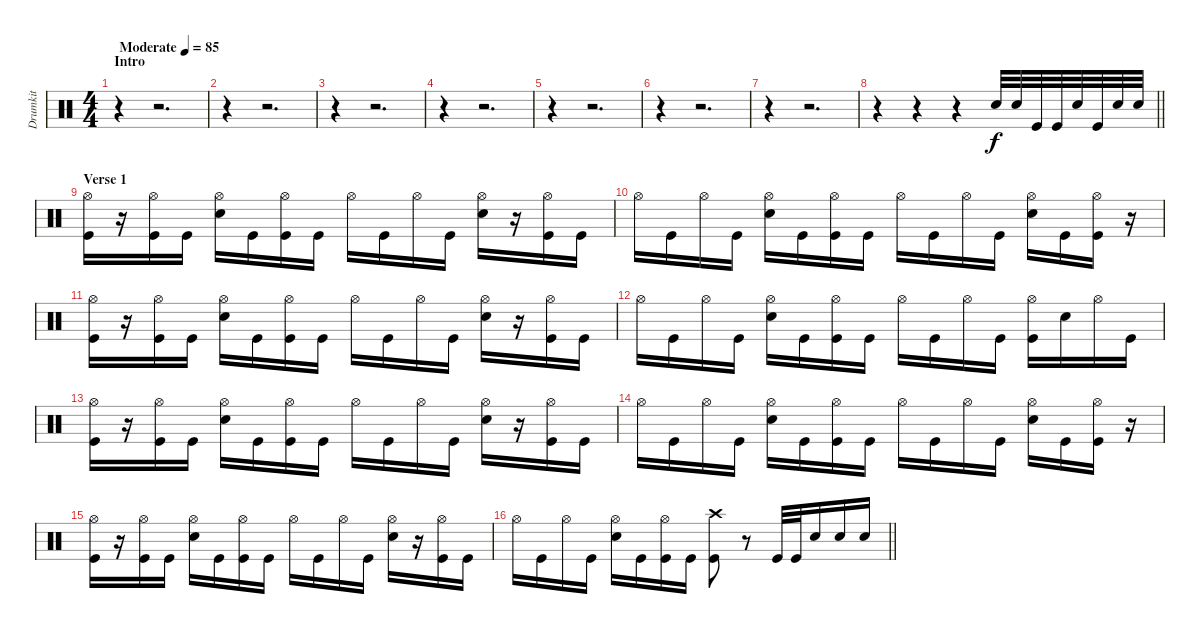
\track ("Drumkit" "Drumkit") {instrument percussion}
\staff {score}
\articulation defaults
\ts (4 4)
\section ("" "Intro")
\tempo (85 "Moderate")
\clef neutral
\ks c
r.4{dy f} r.2{d} |
r.4 r.2{d} |
r.4 r.2{d} |
r.4 r.2{d} |
r.4 r.2{d} |
r.4 r.2{d} |
r.4 r.2{d} |
\barLineRight lightlight
r.4 r.4 r.4 "Snare (hit) 2".32 "Snare (hit) 2".32 "Kick (hit)".32 "Kick (hit)".32 "Snare (hit) 2".32 "Kick (hit)".32 "Snare (hit) 2".32 "Snare (hit) 2".32 |
\section ("" "Verse 1")
("Hi-Hat (open)" "Kick (hit)").16 r.16 ("Hi-Hat (open)" "Kick (hit)").16 "Kick (hit)".16 ("Hi-Hat (open)" "Snare (hit) 2").16 "Kick (hit)".16 ("Hi-Hat (open)" "Kick (hit)").16 "Kick (hit)".16 "Hi-Hat (open)".16 "Kick (hit)".16 "Hi-Hat (open)".16 "Kick (hit)".16 ("Hi-Hat (open)" "Snare (hit) 2").16 r.16 ("Hi-Hat (open)" "Kick (hit)").16 "Kick (hit)".16 |
"Hi-Hat (open)".16 "Kick (hit)".16 "Hi-Hat (open)".16 "Kick (hit)".16 ("Hi-Hat (open)" "Snare (hit) 2").16 "Kick (hit)".16 ("Hi-Hat (open)" "Kick (hit)").16 "Kick (hit)".16 "Hi-Hat (open)".16 "Kick (hit)".16 "Hi-Hat (open)".16 "Kick (hit)".16 ("Hi-Hat (open)" "Snare (hit) 2").16 "Kick (hit)".16 ("Hi-Hat (open)" "Kick (hit)").16 r.16 |
("Hi-Hat (open)" "Kick (hit)").16 r.16 ("Hi-Hat (open)" "Kick (hit)").16 "Kick (hit)".16 ("Hi-Hat (open)" "Snare (hit) 2").16 "Kick (hit)".16 ("Hi-Hat (open)" "Kick (hit)").16 "Kick (hit)".16 "Hi-Hat (open)".16 "Kick (hit)".16 "Hi-Hat (open)".16 "Kick (hit)".16 ("Hi-Hat (open)" "Snare (hit) 2").16 r.16 ("Hi-Hat (open)" "Kick (hit)").16 "Kick (hit)".16 |
"Hi-Hat (open)".16 "Kick (hit)".16 "Hi-Hat (open)".16 "Kick (hit)".16 ("Hi-Hat (open)" "Snare (hit) 2").16 "Kick (hit)".16 ("Hi-Hat (open)" "Kick (hit)").16 "Kick (hit)".16 "Hi-Hat (open)".16 "Kick (hit)".16 "Hi-Hat (open)".16 "Kick (hit)".16 ("Hi-Hat (open)" "Kick (hit)").16 "Snare (hit) 2".16 "Hi-Hat (open)".16 "Kick (hit)".16 |
("Hi-Hat (open)" "Kick (hit)").16 r.16 ("Hi-Hat (open)" "Kick (hit)").16 "Kick (hit)".16 ("Hi-Hat (open)" "Snare (hit) 2").16 "Kick (hit)".16 ("Hi-Hat (open)" "Kick (hit)").16 "Kick (hit)".16 "Hi-Hat (open)".16 "Kick (hit)".16 "Hi-Hat (open)".16 "Kick (hit)".16 ("Hi-Hat (open)" "Snare (hit) 2").16 r.16 ("Hi-Hat (open)" "Kick (hit)").16 "Kick (hit)".16 |
"Hi-Hat (open)".16 "Kick (hit)".16 "Hi-Hat (open)".16 "Kick (hit)".16 ("Hi-Hat (open)" "Snare (hit) 2").16 "Kick (hit)".16 ("Hi-Hat (open)" "Kick (hit)").16 "Kick (hit)".16 "Hi-Hat (open)".16 "Kick (hit)".16 "Hi-Hat (open)".16 "Kick (hit)".16 ("Hi-Hat (open)" "Snare (hit) 2").16 "Kick (hit)".16 ("Hi-Hat (open)" "Kick (hit)").16 r.16 |
("Hi-Hat (open)" "Kick (hit)").16 r.16 ("Hi-Hat (open)" "Kick (hit)").16 "Kick (hit)".16 ("Hi-Hat (open)" "Snare (hit) 2").16 "Kick (hit)".16 ("Hi-Hat (open)" "Kick (hit)").16 "Kick (hit)".16 "Hi-Hat (open)".16 "Kick (hit)".16 "Hi-Hat (open)".16 "Kick (hit)".16 ("Hi-Hat (open)" "Snare (hit) 2").16 r.16 ("Hi-Hat (open)" "Kick (hit)").16 "Kick (hit)".16 |
\barLineRight lightlight "Hi-Hat (open)".16 "Kick (hit)".16 "Hi-Hat (open)".16 "Kick (hit)".16
("Hi-Hat (open)" "Snare (hit) 2").16 "Kick (hit)".16 ("Hi-Hat (open)" "Kick (hit)").16 "Kick (hit)".16 ("Crash high (hit)" "Kick (hit)").8 r.8 "Kick (hit)".32 "Kick (hit)".32 "Snare (hit) 2".16 "Snare (hit) 2".16 "Snare (hit) 2".16
